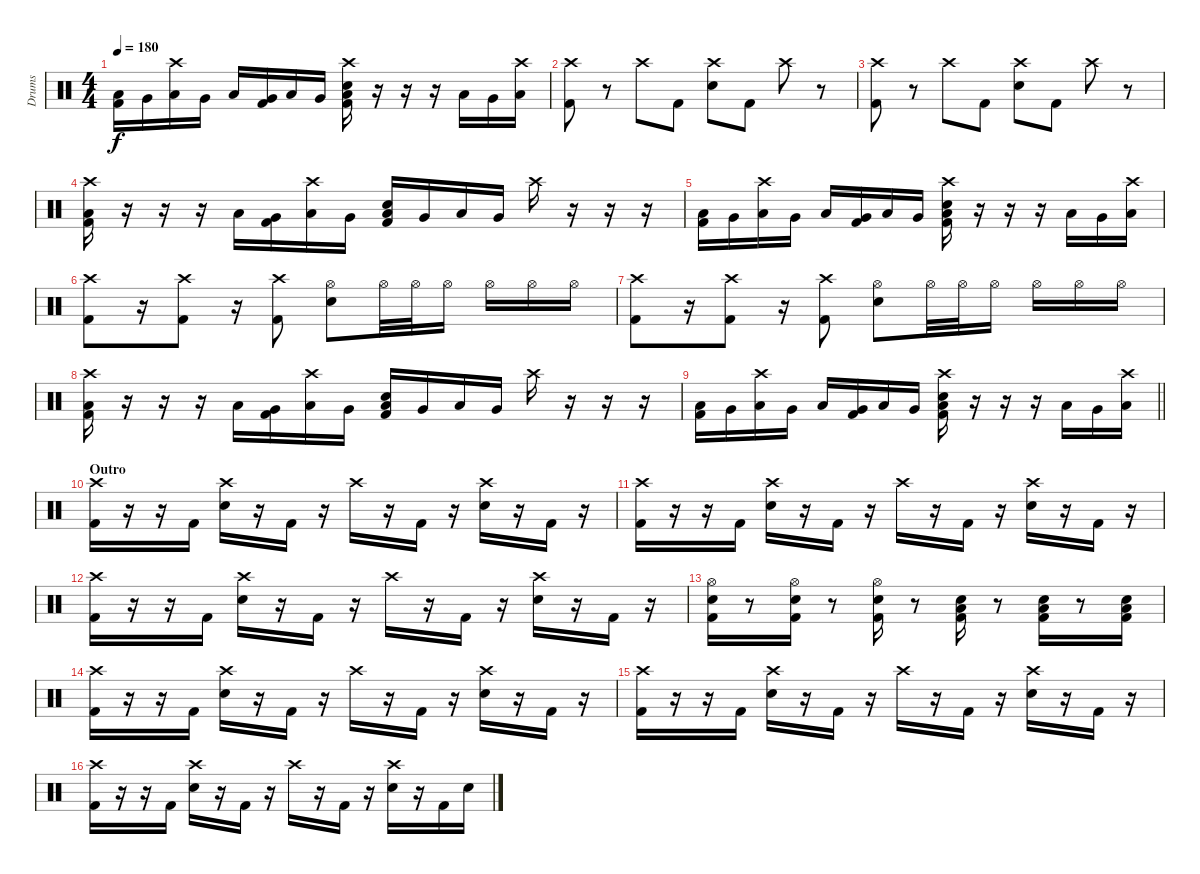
\track ("Drums" "Drums") {instrument percussion}
\staff {score}
\articulation defaults
\ts (4 4)
\tempo 180
\clef neutral
\ks c
("Low Floor Tom (hit)" "Kick (hit) 2").16{dy f} "Very Low Tom (hit)".16 ("Crash high (hit)" "Low Floor Tom (hit)").16 "Very Low Tom (hit)".16 "Low Floor Tom (hit)".16 ("Very Low Tom (hit)" "Kick (hit) 2").16 "Low Floor Tom (hit)".16 "Very Low Tom (hit)".16 ("Crash high (hit)" "Electric Snare (hit)" "Low Floor Tom (hit)" "Kick (hit) 2").16 r.16 r.16 r.16 "Low Floor Tom (hit)".16 "Very Low Tom (hit)".16 ("Crash high (hit)" "Low Floor Tom (hit)").16 |
("Crash high (hit)" "Kick (hit) 2").8 r.8 "Crash high (hit)".8 "Kick (hit) 2".8 ("Crash high (hit)" "Electric Snare (hit)").8 "Kick (hit) 2".8 "Crash high (hit)".8 r.8 |
("Crash high (hit)" "Kick (hit) 2").8 r.8 "Crash high (hit)".8 "Kick (hit) 2".8 ("Crash high (hit)" "Electric Snare (hit)").8 "Kick (hit) 2".8 "Crash high (hit)".8 r.8 |
("Crash high (hit)" "Low Floor Tom (hit)" "Kick (hit) 2").16 r.16 r.16 r.16 "Low Floor Tom (hit)".16 ("Very Low Tom (hit)" "Kick (hit) 2").16 ("Crash high (hit)" "Low Floor Tom (hit)").16 "Very Low Tom (hit)".16 ("Electric Snare (hit)" "Low Floor Tom (hit)" "Kick (hit) 2").16 "Very Low Tom (hit)".16 "Low Floor Tom (hit)".16 "Very Low Tom (hit)".16 "Crash high (hit)".16 r.16 r.16 r.16 |
("Low Floor Tom (hit)" "Kick (hit) 2").16 "Very Low Tom (hit)".16 ("Crash high (hit)" "Low Floor Tom (hit)").16 "Very Low Tom (hit)".16 "Low Floor Tom (hit)".16 ("Very Low Tom (hit)" "Kick (hit) 2").16 "Low Floor Tom (hit)".16 "Very Low Tom (hit)".16 ("Crash high (hit)" "Electric Snare (hit)" "Low Floor Tom (hit)" "Kick (hit) 2").16 r.16 r.16 r.16 "Low Floor Tom (hit)".16 "Very Low Tom (hit)".16 ("Crash high (hit)" "Low Floor Tom (hit)").16 |
("Crash high (hit)" "Kick (hit) 2").8 r.16 ("Crash high (hit)" "Kick (hit) 2").8 r.16 ("Crash high (hit)" "Kick (hit) 2").8 ("Hi-Hat (open)" "Electric Snare (hit)").8 "Hi-Hat (open)".32 "Hi-Hat (open)".32 "Hi-Hat (open)".16 "Hi-Hat (open)".16 "Hi-Hat (open)".16 "Hi-Hat (open)".16 |
("Crash high (hit)" "Kick (hit) 2").8 r.16 ("Crash high (hit)" "Kick (hit) 2").8 r.16 ("Crash high (hit)" "Kick (hit) 2").8 ("Hi-Hat (open)" "Electric Snare (hit)").8 "Hi-Hat (open)".32 "Hi-Hat (open)".32 "Hi-Hat (open)".16 "Hi-Hat (open)".16 "Hi-Hat (open)".16 "Hi-Hat (open)".16 |
("Crash high (hit)" "Low Floor Tom (hit)" "Kick (hit) 2").16 r.16 r.16 r.16 "Low Floor Tom (hit)".16 ("Very Low Tom (hit)" "Kick (hit) 2").16 ("Crash high (hit)" "Low Floor Tom (hit)").16 "Very Low Tom (hit)".16 ("Electric Snare (hit)" "Low Floor Tom (hit)" "Kick (hit) 2").16 "Very Low Tom (hit)".16 "Low Floor Tom (hit)".16 "Very Low Tom (hit)".16 "Crash high (hit)".16 r.16 r.16 r.16 |
\barLineRight lightlight
("Low Floor Tom (hit)" "Kick (hit) 2").16 "Very Low Tom (hit)".16 ("Crash high (hit)" "Low Floor Tom (hit)").16 "Very Low Tom (hit)".16 "Low Floor Tom (hit)".16 ("Very Low Tom (hit)" "Kick (hit) 2").16 "Low Floor Tom (hit)".16 "Very Low Tom (hit)".16 ("Crash high (hit)" "Electric Snare (hit)" "Low Floor Tom (hit)" "Kick (hit) 2").16 r.16 r.16 r.16 "Low Floor Tom (hit)".16 "Very Low Tom (hit)".16 ("Crash high (hit)" "Low Floor Tom (hit)").16 |
\section ("" "Outro")
("Crash high (hit)" "Kick (hit) 2").16 r.16 r.16 "Kick (hit) 2".16 ("Crash high (hit)" "Electric Snare (hit)").16 r.16 "Kick (hit) 2".16 r.16 "Crash high (hit)".16 r.16 "Kick (hit) 2".16 r.16 ("Crash high (hit)" "Electric Snare (hit)").16 r.16 "Kick (hit) 2".16 r.16 |
("Crash high (hit)" "Kick (hit) 2").16 r.16 r.16 "Kick (hit) 2".16 ("Crash high (hit)" "Electric Snare (hit)").16 r.16 "Kick (hit) 2".16 r.16 "Crash high (hit)".16 r.16 "Kick (hit) 2".16 r.16 ("Crash high (hit)" "Electric Snare (hit)").16 r.16 "Kick (hit) 2".16 r.16 |
("Crash high (hit)" "Kick (hit) 2").16 r.16 r.16 "Kick (hit) 2".16 ("Crash high (hit)" "Electric Snare (hit)").16 r.16 "Kick (hit) 2".16 r.16 "Crash high (hit)".16 r.16 "Kick (hit) 2".16 r.16 ("Crash high (hit)" "Electric Snare (hit)").16 r.16 "Kick (hit) 2".16 r.16 |
("Hi-Hat (open)" "Electric Snare (hit)" "Kick (hit) 2").16 r.8 ("Hi-Hat (open)" "Electric Snare (hit)" "Kick (hit) 2").16 r.8 ("Hi-Hat (open)" "Electric Snare (hit)" "Kick (hit) 2").16 r.8 ("Low Floor Tom (hit)" "Electric Snare (hit)" "Kick (hit) 2").16 r.8 ("Low Floor Tom (hit)" "Electric Snare (hit)" "Kick (hit) 2").16 r.8 ("Low Floor Tom (hit)" "Electric Snare (hit)" "Kick (hit) 2").16 |
("Crash high (hit)" "Kick (hit) 2").16 r.16 r.16 "Kick (hit) 2".16 ("Crash high (hit)" "Electric Snare (hit)").16 r.16 "Kick (hit) 2".16 r.16 "Crash high (hit)".16 r.16 "Kick (hit) 2".16 r.16 ("Crash high (hit)" "Electric Snare (hit)").16 r.16 "Kick (hit) 2".16 r.16 |
("Crash high (hit)" "Kick (hit) 2").16 r.16 r.16 "Kick (hit) 2".16 ("Crash high (hit)" "Electric Snare (hit)").16 r.16 "Kick (hit) 2".16 r.16 "Crash high (hit)".16 r.16 "Kick (hit) 2".16 r.16 ("Crash high (hit)" "Electric Snare (hit)").16 r.16 "Kick (hit) 2".16 r.16 |
("Crash high (hit)" "Kick (hit) 2").16 r.16 r.16 "Kick (hit) 2".16 ("Crash high (hit)" "Electric Snare (hit)").16 r.16 "Kick (hit) 2".16 r.16 "Crash high (hit)".16 r.16 "Kick (hit) 2".16 r.16 ("Crash high (hit)" "Electric Snare (hit)").16 r.16 "Kick (hit) 2".16 "Electric Snare (hit)".16
